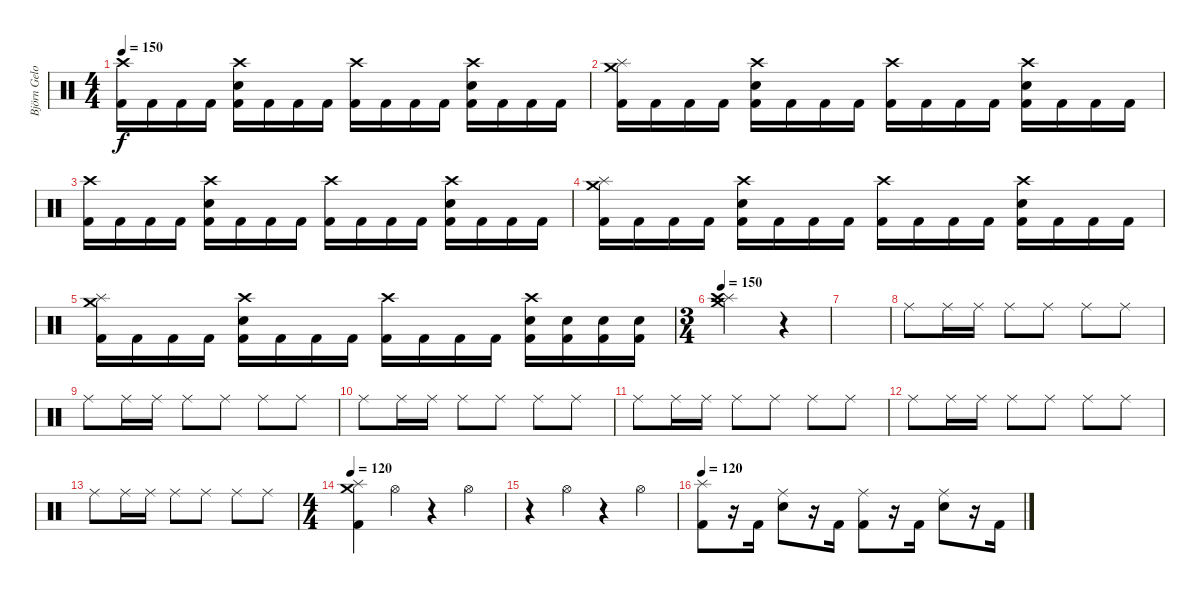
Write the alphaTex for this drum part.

\track ("Björn Gelotte" "Björn Gelo") {instrument percussion}
\staff {score}
\articulation defaults
\ts (4 4)
\tempo 150
\clef neutral
\ks c
("Crash high (hit)" "Kick (hit) 2").16{dy f} "Kick (hit) 2".16 "Kick (hit) 2".16 "Kick (hit) 2".16 ("Crash high (hit)" "Electric Snare (hit)" "Kick (hit) 2").16 "Kick (hit) 2".16 "Kick (hit) 2".16 "Kick (hit) 2".16 ("Crash high (hit)" "Kick (hit) 2").16 "Kick (hit) 2".16 "Kick (hit) 2".16 "Kick (hit) 2".16 ("Crash high (hit)" "Electric Snare (hit)" "Kick (hit) 2").16 "Kick (hit) 2".16 "Kick (hit) 2".16 "Kick (hit) 2".16 |
("Crash medium (hit)" "Splash (hit)" "Kick (hit) 2").16 "Kick (hit) 2".16 "Kick (hit) 2".16 "Kick (hit) 2".16 ("Crash high (hit)" "Electric Snare (hit)" "Kick (hit) 2").16 "Kick (hit) 2".16 "Kick (hit) 2".16 "Kick (hit) 2".16 ("Crash high (hit)" "Kick (hit) 2").16 "Kick (hit) 2".16 "Kick (hit) 2".16 "Kick (hit) 2".16 ("Crash high (hit)" "Electric Snare (hit)" "Kick (hit) 2").16 "Kick (hit) 2".16 "Kick (hit) 2".16 "Kick (hit) 2".16 |
("Crash high (hit)" "Kick (hit) 2").16 "Kick (hit) 2".16 "Kick (hit) 2".16 "Kick (hit) 2".16 ("Crash high (hit)" "Electric Snare (hit)" "Kick (hit) 2").16 "Kick (hit) 2".16 "Kick (hit) 2".16 "Kick (hit) 2".16 ("Crash high (hit)" "Kick (hit) 2").16 "Kick (hit) 2".16 "Kick (hit) 2".16 "Kick (hit) 2".16 ("Crash high (hit)" "Electric Snare (hit)" "Kick (hit) 2").16 "Kick (hit) 2".16 "Kick (hit) 2".16 "Kick (hit) 2".16 |
("Crash medium (hit)" "Splash (hit)" "Kick (hit) 2").16 "Kick (hit) 2".16 "Kick (hit) 2".16 "Kick (hit) 2".16 ("Crash high (hit)" "Electric Snare (hit)" "Kick (hit) 2").16 "Kick (hit) 2".16 "Kick (hit) 2".16 "Kick (hit) 2".16 ("Crash high (hit)" "Kick (hit) 2").16 "Kick (hit) 2".16 "Kick (hit) 2".16 "Kick (hit) 2".16 ("Crash high (hit)" "Electric Snare (hit)" "Kick (hit) 2").16 "Kick (hit) 2".16 "Kick (hit) 2".16 "Kick (hit) 2".16 |
("Crash medium (hit)" "Splash (hit)" "Kick (hit) 2").16 "Kick (hit) 2".16 "Kick (hit) 2".16 "Kick (hit) 2".16 ("Crash high (hit)" "Electric Snare (hit)" "Kick (hit) 2").16 "Kick (hit) 2".16 "Kick (hit) 2".16 "Kick (hit) 2".16 ("Crash high (hit)" "Kick (hit) 2").16 "Kick (hit) 2".16 "Kick (hit) 2".16 "Kick (hit) 2".16 ("Crash high (hit)" "Electric Snare (hit)" "Kick (hit) 2").16 ("Electric Snare (hit)" "Kick (hit) 2").16 ("Electric Snare (hit)" "Kick (hit) 2").16 ("Electric Snare (hit)" "Kick (hit) 2").16 |
\ts (3 4)
\tempo 150
("Splash (hit)" "Crash medium (hit)" "Crash high (hit)").2 r.4 |
|
"Ride (middle)".8 "Ride (middle)".16 "Ride (middle)".16 "Ride (middle)".8 "Ride (middle)".8 "Ride (middle)".8 "Ride (middle)".8 |
"Ride (middle)".8 "Ride (middle)".16 "Ride (middle)".16 "Ride (middle)".8 "Ride (middle)".8 "Ride (middle)".8 "Ride (middle)".8 |
"Ride (middle)".8 "Ride (middle)".16 "Ride (middle)".16 "Ride (middle)".8 "Ride (middle)".8 "Ride (middle)".8 "Ride (middle)".8 |
"Ride (middle)".8 "Ride (middle)".16 "Ride (middle)".16 "Ride (middle)".8 "Ride (middle)".8 "Ride (middle)".8 "Ride (middle)".8 |
"Ride (middle)".8 "Ride (middle)".16 "Ride (middle)".16 "Ride (middle)".8 "Ride (middle)".8 "Ride (middle)".8 "Ride (middle)".8 |
"Ride (middle)".8 "Ride (middle)".16 "Ride (middle)".16 "Ride (middle)".8 "Ride (middle)".8 "Ride (middle)".8 "Ride (middle)".8 |
\ts (4 4)
\tempo 115
\tempo 120
("Splash (hit)" "Crash medium (hit)" "Kick (hit) 2").4 "Hi-Hat (open)".4 r.4 "Hi-Hat (open)".4 |
r.4 "Hi-Hat (open)".4 r.4 "Hi-Hat (open)".4 |
\tempo 115
\tempo 120
("Splash (hit)" "Kick (hit) 2").8 r.16 "Kick (hit) 2".16 ("Ride (middle)" "Electric Snare (hit)").8 r.16 "Kick (hit) 2".16 ("Ride (middle)" "Kick (hit) 2").8 r.16 "Kick (hit) 2".16 ("Ride (middle)" "Electric Snare (hit)").8 r.16 "Kick (hit) 2".16
